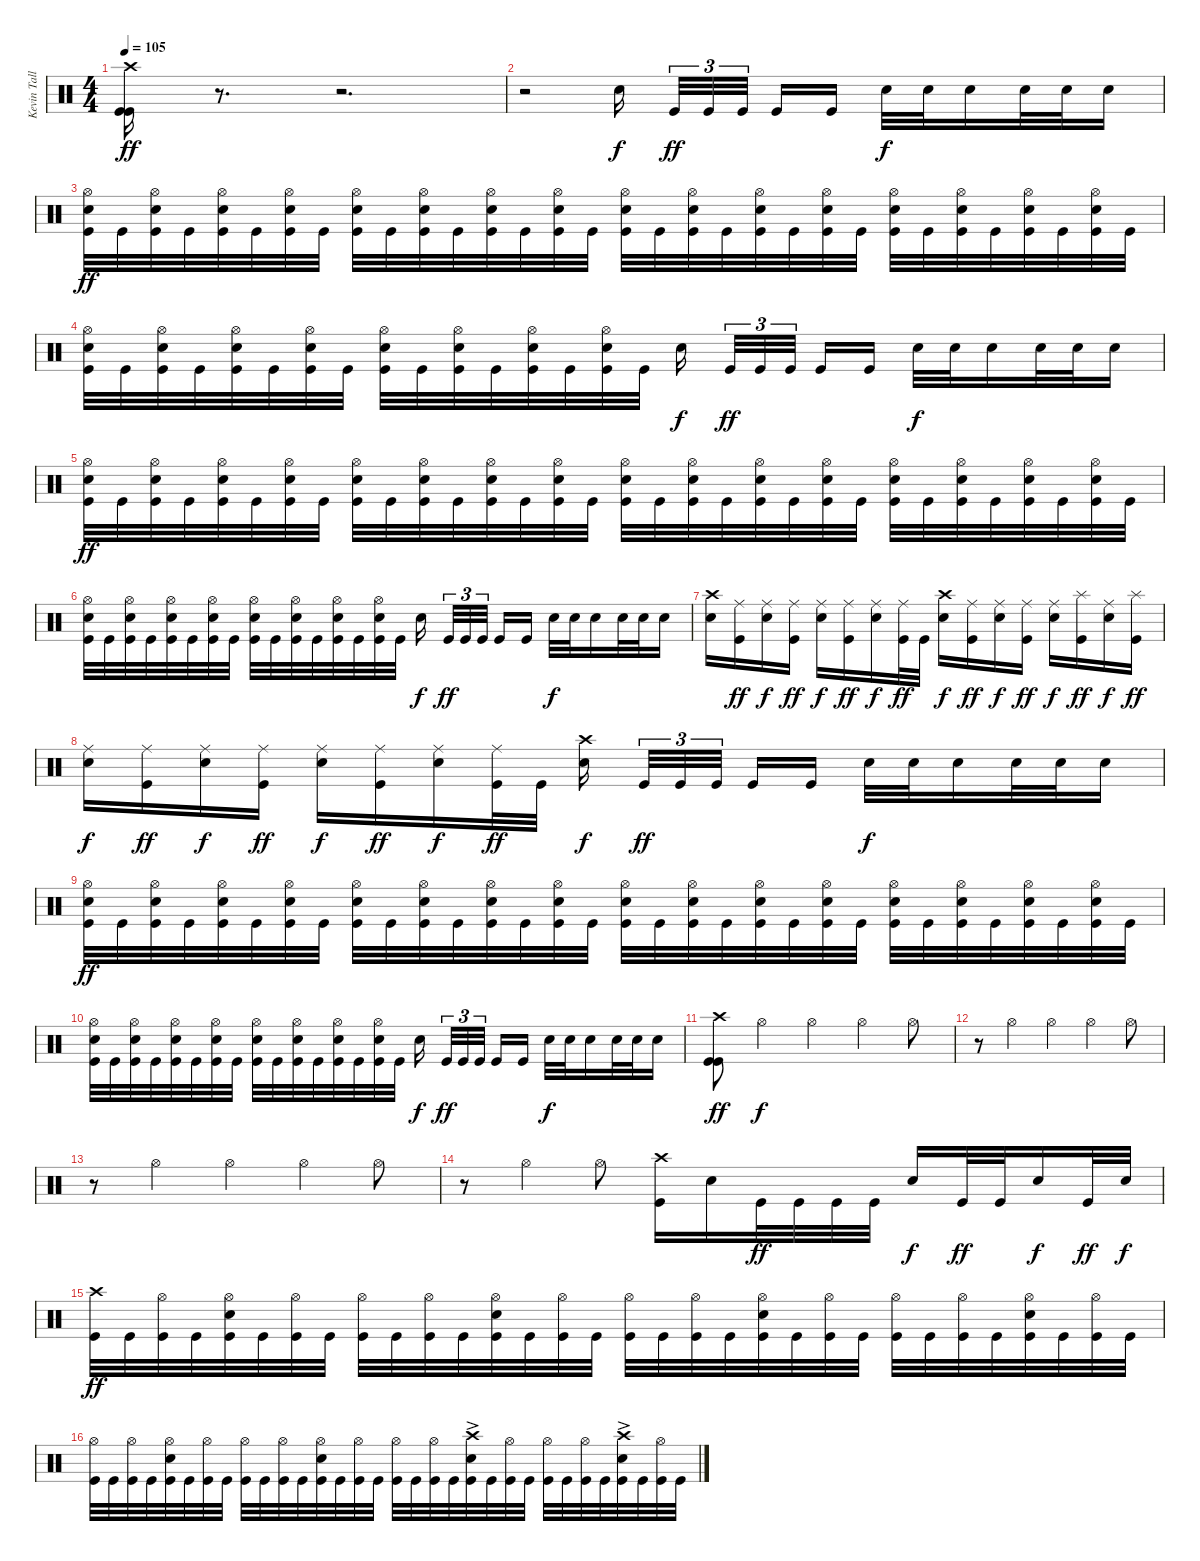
\track ("Kevin Talley" "Kevin Tall") {instrument percussion}
\staff {score}
\articulation defaults
\ts (4 4)
\tempo 105
\clef neutral
\ks c
("Crash high (hit)" "Kick (hit)" "Kick (hit)").16{dy ff} r.8{d volume 0} r.2{d} |
r.2{volume 13} "Electric Snare (hit)".16{dy f} "Kick (hit)".32{tu (3 2) dy ff} "Kick (hit)".32{tu (3 2)} "Kick (hit)".32{tu (3 2)} "Kick (hit)".16 "Kick (hit)".16 "Electric Snare (hit)".32{dy f} "Electric Snare (hit)".32 "Electric Snare (hit)".16 "Electric Snare (hit)".32 "Electric Snare (hit)".32 "Electric Snare (hit)".16 |
("Hi-Hat (open)" "Electric Snare (hit)" "Kick (hit)").32{dy ff} "Kick (hit)".32 ("Hi-Hat (open)" "Electric Snare (hit)" "Kick (hit)").32 "Kick (hit)".32 ("Hi-Hat (open)" "Electric Snare (hit)" "Kick (hit)").32 "Kick (hit)".32 ("Hi-Hat (open)" "Electric Snare (hit)" "Kick (hit)").32 "Kick (hit)".32 ("Hi-Hat (open)" "Electric Snare (hit)" "Kick (hit)").32 "Kick (hit)".32 ("Hi-Hat (open)" "Electric Snare (hit)" "Kick (hit)").32 "Kick (hit)".32 ("Hi-Hat (open)" "Electric Snare (hit)" "Kick (hit)").32 "Kick (hit)".32 ("Hi-Hat (open)" "Electric Snare (hit)" "Kick (hit)").32 "Kick (hit)".32 ("Hi-Hat (open)" "Electric Snare (hit)" "Kick (hit)").32 "Kick (hit)".32 ("Hi-Hat (open)" "Electric Snare (hit)" "Kick (hit)").32 "Kick (hit)".32 ("Hi-Hat (open)" "Electric Snare (hit)" "Kick (hit)").32 "Kick (hit)".32 ("Hi-Hat (open)" "Electric Snare (hit)" "Kick (hit)").32 "Kick (hit)".32 ("Hi-Hat (open)" "Electric Snare (hit)" "Kick (hit)").32 "Kick (hit)".32 ("Hi-Hat (open)" "Electric Snare (hit)" "Kick (hit)").32 "Kick (hit)".32 ("Hi-Hat (open)" "Electric Snare (hit)" "Kick (hit)").32 "Kick (hit)".32 ("Hi-Hat (open)" "Electric Snare (hit)" "Kick (hit)").32 "Kick (hit)".32 |
("Hi-Hat (open)" "Electric Snare (hit)" "Kick (hit)").32 "Kick (hit)".32 ("Hi-Hat (open)" "Electric Snare (hit)" "Kick (hit)").32 "Kick (hit)".32 ("Hi-Hat (open)" "Electric Snare (hit)" "Kick (hit)").32 "Kick (hit)".32 ("Hi-Hat (open)" "Electric Snare (hit)" "Kick (hit)").32 "Kick (hit)".32 ("Hi-Hat (open)" "Electric Snare (hit)" "Kick (hit)").32 "Kick (hit)".32 ("Hi-Hat (open)" "Electric Snare (hit)" "Kick (hit)").32 "Kick (hit)".32 ("Hi-Hat (open)" "Electric Snare (hit)" "Kick (hit)").32 "Kick (hit)".32 ("Hi-Hat (open)" "Electric Snare (hit)" "Kick (hit)").32 "Kick (hit)".32 "Electric Snare (hit)".16{dy f} "Kick (hit)".32{tu (3 2) dy ff} "Kick (hit)".32{tu (3 2)} "Kick (hit)".32{tu (3 2)} "Kick (hit)".16 "Kick (hit)".16 "Electric Snare (hit)".32{dy f} "Electric Snare (hit)".32 "Electric Snare (hit)".16 "Electric Snare (hit)".32 "Electric Snare (hit)".32 "Electric Snare (hit)".16 |
("Hi-Hat (open)" "Electric Snare (hit)" "Kick (hit)").32{dy ff} "Kick (hit)".32 ("Hi-Hat (open)" "Electric Snare (hit)" "Kick (hit)").32 "Kick (hit)".32 ("Hi-Hat (open)" "Electric Snare (hit)" "Kick (hit)").32 "Kick (hit)".32 ("Hi-Hat (open)" "Electric Snare (hit)" "Kick (hit)").32 "Kick (hit)".32 ("Hi-Hat (open)" "Electric Snare (hit)" "Kick (hit)").32 "Kick (hit)".32 ("Hi-Hat (open)" "Electric Snare (hit)" "Kick (hit)").32 "Kick (hit)".32 ("Hi-Hat (open)" "Electric Snare (hit)" "Kick (hit)").32 "Kick (hit)".32 ("Hi-Hat (open)" "Electric Snare (hit)" "Kick (hit)").32 "Kick (hit)".32 ("Hi-Hat (open)" "Electric Snare (hit)" "Kick (hit)").32 "Kick (hit)".32 ("Hi-Hat (open)" "Electric Snare (hit)" "Kick (hit)").32 "Kick (hit)".32 ("Hi-Hat (open)" "Electric Snare (hit)" "Kick (hit)").32 "Kick (hit)".32 ("Hi-Hat (open)" "Electric Snare (hit)" "Kick (hit)").32 "Kick (hit)".32 ("Hi-Hat (open)" "Electric Snare (hit)" "Kick (hit)").32 "Kick (hit)".32 ("Hi-Hat (open)" "Electric Snare (hit)" "Kick (hit)").32 "Kick (hit)".32 ("Hi-Hat (open)" "Electric Snare (hit)" "Kick (hit)").32 "Kick (hit)".32 ("Hi-Hat (open)" "Electric Snare (hit)" "Kick (hit)").32 "Kick (hit)".32 |
("Hi-Hat (open)" "Electric Snare (hit)" "Kick (hit)").32 "Kick (hit)".32 ("Hi-Hat (open)" "Electric Snare (hit)" "Kick (hit)").32 "Kick (hit)".32 ("Hi-Hat (open)" "Electric Snare (hit)" "Kick (hit)").32 "Kick (hit)".32 ("Hi-Hat (open)" "Electric Snare (hit)" "Kick (hit)").32 "Kick (hit)".32 ("Hi-Hat (open)" "Electric Snare (hit)" "Kick (hit)").32 "Kick (hit)".32 ("Hi-Hat (open)" "Electric Snare (hit)" "Kick (hit)").32 "Kick (hit)".32 ("Hi-Hat (open)" "Electric Snare (hit)" "Kick (hit)").32 "Kick (hit)".32 ("Hi-Hat (open)" "Electric Snare (hit)" "Kick (hit)").32 "Kick (hit)".32 "Electric Snare (hit)".16{dy f} "Kick (hit)".32{tu (3 2) dy ff} "Kick (hit)".32{tu (3 2)} "Kick (hit)".32{tu (3 2)} "Kick (hit)".16 "Kick (hit)".16 "Electric Snare (hit)".32{dy f} "Electric Snare (hit)".32 "Electric Snare (hit)".16 "Electric Snare (hit)".32 "Electric Snare (hit)".32 "Electric Snare (hit)".16 |
("Crash high (hit)" "Electric Snare (hit)").16 ("Ride (middle)" "Kick (hit)").16{dy ff} ("Ride (middle)" "Electric Snare (hit)").16{dy f} ("Ride (middle)" "Kick (hit)").16{dy ff} ("Ride (middle)" "Electric Snare (hit)").16{dy f} ("Ride (middle)" "Kick (hit)").16{dy ff} ("Ride (middle)" "Electric Snare (hit)").16{dy f} ("Ride (middle)" "Kick (hit)").32{dy ff} "Kick (hit)".32 ("Crash high (hit)" "Electric Snare (hit)").16{dy f} ("Ride (middle)" "Kick (hit)").16{dy ff} ("Ride (middle)" "Electric Snare (hit)").16{dy f} ("Ride (middle)" "Kick (hit)").16{dy ff} ("Ride (middle)" "Electric Snare (hit)").16{dy f} ("Splash (hit)" "Kick (hit)").16{dy ff} ("Ride (middle)" "Electric Snare (hit)").16{dy f} ("Splash (hit)" "Kick (hit)").16{dy ff} |
("Ride (middle)" "Electric Snare (hit)").16{dy f} ("Ride (middle)" "Kick (hit)").16{dy ff} ("Ride (middle)" "Electric Snare (hit)").16{dy f} ("Ride (middle)" "Kick (hit)").16{dy ff} ("Ride (middle)" "Electric Snare (hit)").16{dy f} ("Ride (middle)" "Kick (hit)").16{dy ff} ("Ride (middle)" "Electric Snare (hit)").16{dy f} ("Ride (middle)" "Kick (hit)").32{dy ff} "Kick (hit)".32 ("Crash high (hit)" "Electric Snare (hit)").16{dy f} "Kick (hit)".32{tu (3 2) dy ff} "Kick (hit)".32{tu (3 2)} "Kick (hit)".32{tu (3 2)} "Kick (hit)".16 "Kick (hit)".16 "Electric Snare (hit)".32{dy f} "Electric Snare (hit)".32 "Electric Snare (hit)".16 "Electric Snare (hit)".32 "Electric Snare (hit)".32 "Electric Snare (hit)".16 |
("Hi-Hat (open)" "Electric Snare (hit)" "Kick (hit)").32{dy ff} "Kick (hit)".32 ("Hi-Hat (open)" "Electric Snare (hit)" "Kick (hit)").32 "Kick (hit)".32 ("Hi-Hat (open)" "Electric Snare (hit)" "Kick (hit)").32 "Kick (hit)".32 ("Hi-Hat (open)" "Electric Snare (hit)" "Kick (hit)").32 "Kick (hit)".32 ("Hi-Hat (open)" "Electric Snare (hit)" "Kick (hit)").32 "Kick (hit)".32 ("Hi-Hat (open)" "Electric Snare (hit)" "Kick (hit)").32 "Kick (hit)".32 ("Hi-Hat (open)" "Electric Snare (hit)" "Kick (hit)").32 "Kick (hit)".32 ("Hi-Hat (open)" "Electric Snare (hit)" "Kick (hit)").32 "Kick (hit)".32 ("Hi-Hat (open)" "Electric Snare (hit)" "Kick (hit)").32 "Kick (hit)".32 ("Hi-Hat (open)" "Electric Snare (hit)" "Kick (hit)").32 "Kick (hit)".32 ("Hi-Hat (open)" "Electric Snare (hit)" "Kick (hit)").32 "Kick (hit)".32 ("Hi-Hat (open)" "Electric Snare (hit)" "Kick (hit)").32 "Kick (hit)".32 ("Hi-Hat (open)" "Electric Snare (hit)" "Kick (hit)").32 "Kick (hit)".32 ("Hi-Hat (open)" "Electric Snare (hit)" "Kick (hit)").32 "Kick (hit)".32 ("Hi-Hat (open)" "Electric Snare (hit)" "Kick (hit)").32 "Kick (hit)".32 ("Hi-Hat (open)" "Electric Snare (hit)" "Kick (hit)").32 "Kick (hit)".32 |
("Hi-Hat (open)" "Electric Snare (hit)" "Kick (hit)").32 "Kick (hit)".32 ("Hi-Hat (open)" "Electric Snare (hit)" "Kick (hit)").32 "Kick (hit)".32 ("Hi-Hat (open)" "Electric Snare (hit)" "Kick (hit)").32 "Kick (hit)".32 ("Hi-Hat (open)" "Electric Snare (hit)" "Kick (hit)").32 "Kick (hit)".32 ("Hi-Hat (open)" "Electric Snare (hit)" "Kick (hit)").32 "Kick (hit)".32 ("Hi-Hat (open)" "Electric Snare (hit)" "Kick (hit)").32 "Kick (hit)".32 ("Hi-Hat (open)" "Electric Snare (hit)" "Kick (hit)").32 "Kick (hit)".32 ("Hi-Hat (open)" "Electric Snare (hit)" "Kick (hit)").32 "Kick (hit)".32 "Electric Snare (hit)".16{dy f} "Kick (hit)".32{tu (3 2) dy ff} "Kick (hit)".32{tu (3 2)} "Kick (hit)".32{tu (3 2)} "Kick (hit)".16 "Kick (hit)".16 "Electric Snare (hit)".32{dy f} "Electric Snare (hit)".32 "Electric Snare (hit)".16 "Electric Snare (hit)".32 "Electric Snare (hit)".32 "Electric Snare (hit)".16 |
("Crash high (hit)" "Kick (hit)" "Kick (hit)").8{dy ff} "Hi-Hat (open)".4{dy f} "Hi-Hat (open)".4 "Hi-Hat (open)".4 "Hi-Hat (open)".8 |
r.8 "Hi-Hat (open)".4 "Hi-Hat (open)".4 "Hi-Hat (open)".4 "Hi-Hat (open)".8 |
r.8 "Hi-Hat (open)".4 "Hi-Hat (open)".4 "Hi-Hat (open)".4 "Hi-Hat (open)".8 |
r.8 "Hi-Hat (open)".4 "Hi-Hat (open)".8 ("Crash high (hit)" "Kick (hit)").16 "Electric Snare (hit)".16 "Kick (hit)".32{dy ff} "Kick (hit)".32 "Kick (hit)".32 "Kick (hit)".32 "Electric Snare (hit)".16{dy f} "Kick (hit)".32{dy ff} "Kick (hit)".32 "Electric Snare (hit)".16{dy f} "Kick (hit)".32{dy ff} "Electric Snare (hit)".32{dy f} |
("Crash high (hit)" "Kick (hit)").32{dy ff} "Kick (hit)".32 ("Hi-Hat (open)" "Kick (hit)").32 "Kick (hit)".32 ("Hi-Hat (open)" "Electric Snare (hit)" "Kick (hit)").32 "Kick (hit)".32 ("Hi-Hat (open)" "Kick (hit)").32 "Kick (hit)".32 ("Hi-Hat (open)" "Kick (hit)").32 "Kick (hit)".32 ("Hi-Hat (open)" "Kick (hit)").32 "Kick (hit)".32 ("Hi-Hat (open)" "Electric Snare (hit)" "Kick (hit)").32 "Kick (hit)".32 ("Hi-Hat (open)" "Kick (hit)").32 "Kick (hit)".32 ("Hi-Hat (open)" "Kick (hit)").32 "Kick (hit)".32 ("Hi-Hat (open)" "Kick (hit)").32 "Kick (hit)".32 ("Hi-Hat (open)" "Electric Snare (hit)" "Kick (hit)").32 "Kick (hit)".32 ("Hi-Hat (open)" "Kick (hit)").32 "Kick (hit)".32 ("Hi-Hat (open)" "Kick (hit)").32 "Kick (hit)".32 ("Hi-Hat (open)" "Kick (hit)").32 "Kick (hit)".32 ("Hi-Hat (open)" "Electric Snare (hit)" "Kick (hit)").32 "Kick (hit)".32 ("Hi-Hat (open)" "Kick (hit)").32 "Kick (hit)".32 |
("Hi-Hat (open)" "Kick (hit)").32 "Kick (hit)".32 ("Hi-Hat (open)" "Kick (hit)").32 "Kick (hit)".32 ("Hi-Hat (open)" "Electric Snare (hit)" "Kick (hit)").32 "Kick (hit)".32 ("Hi-Hat (open)" "Kick (hit)").32 "Kick (hit)".32 ("Hi-Hat (open)" "Kick (hit)").32 "Kick (hit)".32 ("Hi-Hat (open)" "Kick (hit)").32 "Kick (hit)".32 ("Hi-Hat (open)" "Electric Snare (hit)" "Kick (hit)").32 "Kick (hit)".32 ("Hi-Hat (open)" "Kick (hit)").32 "Kick (hit)".32 ("Hi-Hat (open)" "Kick (hit)").32 "Kick (hit)".32 ("Hi-Hat (open)" "Kick (hit)").32 "Kick (hit)".32 ("Crash high (hit)" "Electric Snare (hit)"{ac} "Kick (hit)").32 "Kick (hit)".32 ("Hi-Hat (open)" "Kick (hit)").32 "Kick (hit)".32 ("Hi-Hat (open)" "Kick (hit)").32 "Kick (hit)".32 ("Hi-Hat (open)" "Kick (hit)").32 "Kick (hit)".32 ("Crash high (hit)" "Electric Snare (hit)"{ac} "Kick (hit)").32 "Kick (hit)".32 ("Hi-Hat (open)" "Kick (hit)").32 "Kick (hit)".32
